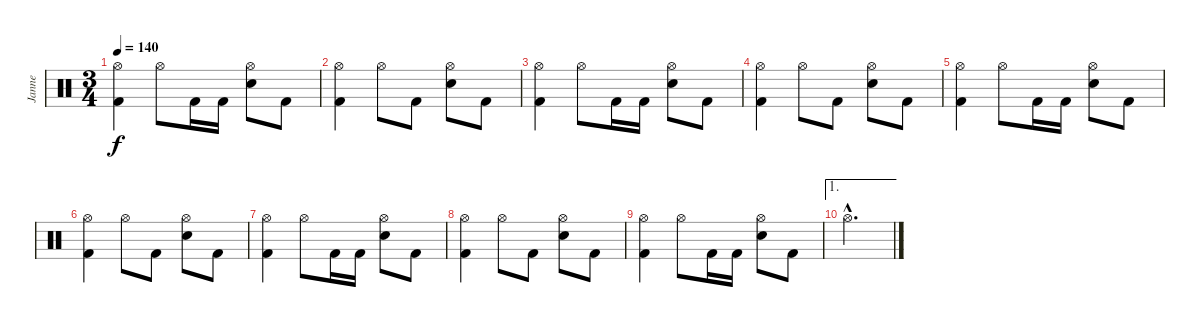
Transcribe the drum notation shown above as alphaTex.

\track ("Janne" "Janne") {instrument percussion}
\staff {score}
\articulation defaults
\ts (3 4)
\tempo 140
\clef neutral
\ks c
("Hi-Hat (open)" "Kick (hit) 2").4{dy f} "Hi-Hat (open)".8 "Kick (hit) 2".16 "Kick (hit) 2".16 ("Hi-Hat (open)" "Electric Snare (hit)").8 "Kick (hit) 2".8 |
("Hi-Hat (open)" "Kick (hit) 2").4 "Hi-Hat (open)".8 "Kick (hit) 2".8 ("Hi-Hat (open)" "Electric Snare (hit)").8 "Kick (hit) 2".8 |
("Hi-Hat (open)" "Kick (hit) 2").4 "Hi-Hat (open)".8 "Kick (hit) 2".16 "Kick (hit) 2".16 ("Hi-Hat (open)" "Electric Snare (hit)").8 "Kick (hit) 2".8 |
("Hi-Hat (open)" "Kick (hit) 2").4 "Hi-Hat (open)".8 "Kick (hit) 2".8 ("Hi-Hat (open)" "Electric Snare (hit)").8 "Kick (hit) 2".8 |
("Hi-Hat (open)" "Kick (hit) 2").4 "Hi-Hat (open)".8 "Kick (hit) 2".16 "Kick (hit) 2".16 ("Hi-Hat (open)" "Electric Snare (hit)").8 "Kick (hit) 2".8 |
("Hi-Hat (open)" "Kick (hit) 2").4 "Hi-Hat (open)".8 "Kick (hit) 2".8 ("Hi-Hat (open)" "Electric Snare (hit)").8 "Kick (hit) 2".8 |
("Hi-Hat (open)" "Kick (hit) 2").4 "Hi-Hat (open)".8 "Kick (hit) 2".16 "Kick (hit) 2".16 ("Hi-Hat (open)" "Electric Snare (hit)").8 "Kick (hit) 2".8 |
("Hi-Hat (open)" "Kick (hit) 2").4 "Hi-Hat (open)".8 "Kick (hit) 2".8 ("Hi-Hat (open)" "Electric Snare (hit)").8 "Kick (hit) 2".8 |
("Hi-Hat (open)" "Kick (hit) 2").4 "Hi-Hat (open)".8 "Kick (hit) 2".16 "Kick (hit) 2".16 ("Hi-Hat (open)" "Electric Snare (hit)").8 "Kick (hit) 2".8 |
\ae 1 "Hi-Hat (open)"{hac}.2{d}
